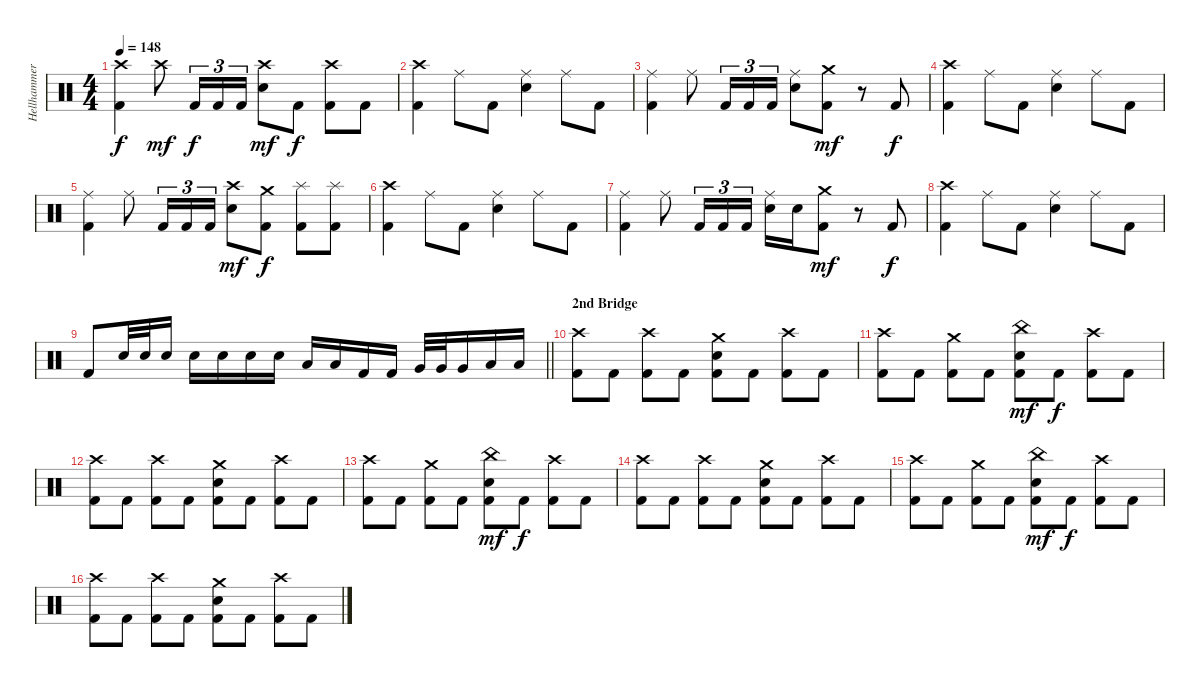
\track ("Hellhammer" "Hellhammer") {instrument percussion}
\staff {score}
\articulation defaults
\ts (4 4)
\tempo 148
\clef neutral
\ks c
("Crash high (hit)" "Kick (hit) 2").4{dy f} "Crash high (hit)".8{dy mf} "Kick (hit) 2".16{tu (3 2) dy f} "Kick (hit) 2".16{tu (3 2)} "Kick (hit) 2".16{tu (3 2)} ("Crash high (hit)" "Snare (hit) 2").8{dy mf} "Kick (hit) 2".8{dy f} ("Crash high (hit)" "Kick (hit) 2").8 "Kick (hit) 2".8 |
("Crash high (hit)" "Kick (hit) 2").4 "Ride (middle)".8 "Kick (hit) 2".8 ("Ride (middle)" "Snare (hit) 2").4 "Ride (middle)".8 "Kick (hit) 2".8 |
("Ride (middle)" "Kick (hit) 2").4 "Ride (middle)".8 "Kick (hit) 2".16{tu (3 2)} "Kick (hit) 2".16{tu (3 2)} "Kick (hit) 2".16{tu (3 2)} ("Ride (middle)" "Snare (hit) 2").8 ("Crash medium (hit)" "Kick (hit) 2").8{dy mf} r.8 "Kick (hit) 2".8{dy f} |
("Crash high (hit)" "Kick (hit) 2").4 "Ride (middle)".8 "Kick (hit) 2".8 ("Ride (middle)" "Snare (hit) 2").4 "Ride (middle)".8 "Kick (hit) 2".8 |
("Ride (middle)" "Kick (hit) 2").4 "Ride (middle)".8 "Kick (hit) 2".16{tu (3 2)} "Kick (hit) 2".16{tu (3 2)} "Kick (hit) 2".16{tu (3 2)} ("Crash high (hit)" "Snare (hit) 2").8{dy mf} ("Crash medium (hit)" "Kick (hit) 2").8{dy f} ("Splash (hit)" "Kick (hit) 2").8 ("Splash (hit)" "Kick (hit) 2").8 |
("Crash high (hit)" "Kick (hit) 2").4 "Ride (middle)".8 "Kick (hit) 2".8 ("Ride (middle)" "Snare (hit) 2").4 "Ride (middle)".8 "Kick (hit) 2".8 |
("Ride (middle)" "Kick (hit) 2").4 "Ride (middle)".8 "Kick (hit) 2".16{tu (3 2)} "Kick (hit) 2".16{tu (3 2)} "Kick (hit) 2".16{tu (3 2)} ("Ride (middle)" "Snare (hit) 2").16 "Snare (hit) 2".16 ("Crash medium (hit)" "Kick (hit) 2").8{dy mf} r.8 "Kick (hit) 2".8{dy f} |
("Crash high (hit)" "Kick (hit) 2").4 "Ride (middle)".8 "Kick (hit) 2".8 ("Ride (middle)" "Snare (hit) 2").4 "Ride (middle)".8 "Kick (hit) 2".8 |
\barLineRight lightlight "Kick (hit) 2".8 "Snare (hit) 2".32 "Snare (hit) 2".32 "Snare (hit) 2".16 "Snare (hit) 2".16 "Snare (hit) 2".16 "Snare (hit) 2".16 "Snare (hit) 2".16 "Low Tom (hit)".16 "Low Tom (hit)".16 "Kick (hit) 2".16 "Kick (hit) 2".16 "Very Low Tom (hit)".32 "Very Low Tom (hit)".32 "Very Low Tom (hit)".16 "Low Floor Tom (hit)".16 "Low Floor Tom (hit)".16
|
\section ("" "2nd Bridge")
("Crash high (hit)" "Kick (hit) 2").8 "Kick (hit) 2".8 ("Crash high (hit)" "Kick (hit) 2").8 "Kick (hit) 2".8 ("Crash medium (hit)" "Snare (hit) 2" "Kick (hit) 2").8 "Kick (hit) 2".8 ("Crash high (hit)" "Kick (hit) 2").8 "Kick (hit) 2".8 |
("Crash high (hit)" "Kick (hit) 2").8 "Kick (hit) 2".8 ("Crash medium (hit)" "Kick (hit) 2").8 "Kick (hit) 2".8 ("China (hit)" "Snare (hit) 2" "Kick (hit) 2").8{dy mf} "Kick (hit) 2".8{dy f} ("Crash high (hit)" "Kick (hit) 2").8 "Kick (hit) 2".8 |
("Crash high (hit)" "Kick (hit) 2").8 "Kick (hit) 2".8 ("Crash high (hit)" "Kick (hit) 2").8 "Kick (hit) 2".8 ("Crash medium (hit)" "Snare (hit) 2" "Kick (hit) 2").8 "Kick (hit) 2".8 ("Crash high (hit)" "Kick (hit) 2").8 "Kick (hit) 2".8 |
("Crash high (hit)" "Kick (hit) 2").8 "Kick (hit) 2".8 ("Crash medium (hit)" "Kick (hit) 2").8 "Kick (hit) 2".8 ("China (hit)" "Snare (hit) 2" "Kick (hit) 2").8{dy mf} "Kick (hit) 2".8{dy f} ("Crash high (hit)" "Kick (hit) 2").8 "Kick (hit) 2".8 |
("Crash high (hit)" "Kick (hit) 2").8 "Kick (hit) 2".8 ("Crash high (hit)" "Kick (hit) 2").8 "Kick (hit) 2".8 ("Crash medium (hit)" "Snare (hit) 2" "Kick (hit) 2").8 "Kick (hit) 2".8 ("Crash high (hit)" "Kick (hit) 2").8 "Kick (hit) 2".8 |
("Crash high (hit)" "Kick (hit) 2").8 "Kick (hit) 2".8 ("Crash medium (hit)" "Kick (hit) 2").8 "Kick (hit) 2".8 ("China (hit)" "Snare (hit) 2" "Kick (hit) 2").8{dy mf} "Kick (hit) 2".8{dy f} ("Crash high (hit)" "Kick (hit) 2").8 "Kick (hit) 2".8 |
("Crash high (hit)" "Kick (hit) 2").8 "Kick (hit) 2".8 ("Crash high (hit)" "Kick (hit) 2").8 "Kick (hit) 2".8 ("Crash medium (hit)" "Snare (hit) 2" "Kick (hit) 2").8 "Kick (hit) 2".8 ("Crash high (hit)" "Kick (hit) 2").8 "Kick (hit) 2".8
